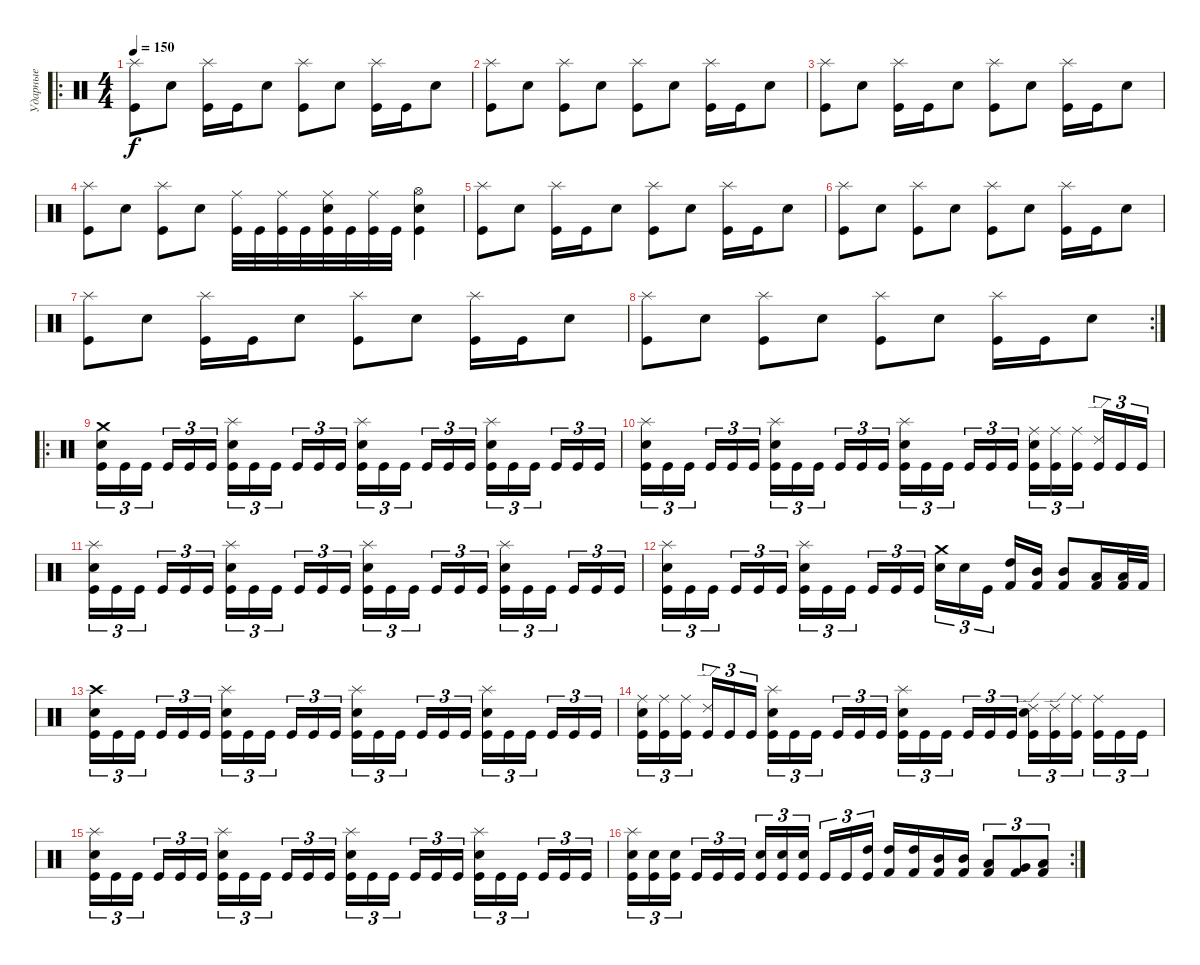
\track ("Ударные" "Ударные") {instrument percussion}
\staff {score}
\articulation defaults
\ro
\ts (4 4)
\tempo 150
\clef neutral
\ks c
("Splash (hit)" "Kick (hit)").8{dy f} "Snare (hit) 2".8 ("Splash (hit)" "Kick (hit)").16 "Kick (hit)".16 "Snare (hit) 2".8 ("Splash (hit)" "Kick (hit)").8 "Snare (hit) 2".8 ("Splash (hit)" "Kick (hit)").16 "Kick (hit)".16 "Snare (hit) 2".8 |
("Splash (hit)" "Kick (hit)").8 "Snare (hit) 2".8 ("Splash (hit)" "Kick (hit)").8 "Snare (hit) 2".8 ("Splash (hit)" "Kick (hit)").8 "Snare (hit) 2".8 ("Splash (hit)" "Kick (hit)").16 "Kick (hit)".16 "Snare (hit) 2".8 |
("Splash (hit)" "Kick (hit)").8 "Snare (hit) 2".8 ("Splash (hit)" "Kick (hit)").16 "Kick (hit)".16 "Snare (hit) 2".8 ("Splash (hit)" "Kick (hit)").8 "Snare (hit) 2".8 ("Splash (hit)" "Kick (hit)").16 "Kick (hit)".16 "Snare (hit) 2".8 |
("Splash (hit)" "Kick (hit)").8 "Snare (hit) 2".8 ("Splash (hit)" "Kick (hit)").8 "Snare (hit) 2".8 ("Ride (middle)" "Kick (hit)").32 "Kick (hit)".32 ("Ride (middle)" "Kick (hit)").32 "Kick (hit)".32 ("Ride (middle)" "Snare (hit) 2" "Kick (hit)").32 "Kick (hit)".32 ("Ride (middle)" "Kick (hit)").32 "Kick (hit)".32 ("Hi-Hat (open)" "Snare (hit) 2" "Kick (hit)").4 |
("Splash (hit)" "Kick (hit)").8 "Snare (hit) 2".8 ("Splash (hit)" "Kick (hit)").16 "Kick (hit)".16 "Snare (hit) 2".8 ("Splash (hit)" "Kick (hit)").8 "Snare (hit) 2".8 ("Splash (hit)" "Kick (hit)").16 "Kick (hit)".16 "Snare (hit) 2".8 |
("Splash (hit)" "Kick (hit)").8 "Snare (hit) 2".8 ("Splash (hit)" "Kick (hit)").8 "Snare (hit) 2".8 ("Splash (hit)" "Kick (hit)").8 "Snare (hit) 2".8 ("Splash (hit)" "Kick (hit)").16 "Kick (hit)".16 "Snare (hit) 2".8 |
("Splash (hit)" "Kick (hit)").8 "Snare (hit) 2".8 ("Splash (hit)" "Kick (hit)").16 "Kick (hit)".16 "Snare (hit) 2".8 ("Splash (hit)" "Kick (hit)").8 "Snare (hit) 2".8 ("Splash (hit)" "Kick (hit)").16 "Kick (hit)".16 "Snare (hit) 2".8 |
\rc 2
("Splash (hit)" "Kick (hit)").8 "Snare (hit) 2".8 ("Splash (hit)" "Kick (hit)").8 "Snare (hit) 2".8 ("Splash (hit)" "Kick (hit)").8 "Snare (hit) 2".8 ("Splash (hit)" "Kick (hit)").16 "Kick (hit)".16 "Snare (hit) 2".8 |
\ro
("Snare (hit) 2" "Crash medium (hit)" "Kick (hit)").16{tu (3 2)} "Kick (hit)".16{tu (3 2)} "Kick (hit)".16{tu (3 2) beam splitsecondary} "Kick (hit)".16{tu (3 2)} "Kick (hit)".16{tu (3 2)} "Kick (hit)".16{tu (3 2)} ("Snare (hit) 2" "Splash (hit)" "Kick (hit)").16{tu (3 2)} "Kick (hit)".16{tu (3 2)} "Kick (hit)".16{tu (3 2) beam splitsecondary} "Kick (hit)".16{tu (3 2)} "Kick (hit)".16{tu (3 2)} "Kick (hit)".16{tu (3 2)} ("Snare (hit) 2" "Splash (hit)" "Kick (hit)").16{tu (3 2)} "Kick (hit)".16{tu (3 2)} "Kick (hit)".16{tu (3 2) beam splitsecondary} "Kick (hit)".16{tu (3 2)} "Kick (hit)".16{tu (3 2)} "Kick (hit)".16{tu (3 2)} ("Snare (hit) 2" "Splash (hit)" "Kick (hit)").16{tu (3 2)} "Kick (hit)".16{tu (3 2)} "Kick (hit)".16{tu (3 2) beam splitsecondary} "Kick (hit)".16{tu (3 2)} "Kick (hit)".16{tu (3 2)} "Kick (hit)".16{tu (3 2)} |
("Snare (hit) 2" "Splash (hit)" "Kick (hit)").16{tu (3 2)} "Kick (hit)".16{tu (3 2)} "Kick (hit)".16{tu (3 2) beam splitsecondary} "Kick (hit)".16{tu (3 2)} "Kick (hit)".16{tu (3 2)} "Kick (hit)".16{tu (3 2)} ("Snare (hit) 2" "Splash (hit)" "Kick (hit)").16{tu (3 2)} "Kick (hit)".16{tu (3 2)} "Kick (hit)".16{tu (3 2) beam splitsecondary} "Kick (hit)".16{tu (3 2)} "Kick (hit)".16{tu (3 2)} "Kick (hit)".16{tu (3 2)} ("Snare (hit) 2" "Splash (hit)" "Kick (hit)").16{tu (3 2)} "Kick (hit)".16{tu (3 2)} "Kick (hit)".16{tu (3 2) beam splitsecondary} "Kick (hit)".16{tu (3 2)} "Kick (hit)".16{tu (3 2)} "Kick (hit)".16{tu (3 2)} ("Snare (hit) 2" "Ride (middle)" "Kick (hit)").16{tu (3 2)} ("Ride (middle)" "Kick (hit)").16{tu (3 2)} ("Ride (middle)" "Kick (hit)").16{tu (3 2) beam splitsecondary} ("Ride (edge) 2" "Kick (hit)").16{tu (3 2)} "Kick (hit)".16{tu (3 2)} "Kick (hit)".16{tu (3 2)} |
("Snare (hit) 2" "Splash (hit)" "Kick (hit)").16{tu (3 2)} "Kick (hit)".16{tu (3 2)} "Kick (hit)".16{tu (3 2) beam splitsecondary} "Kick (hit)".16{tu (3 2)} "Kick (hit)".16{tu (3 2)} "Kick (hit)".16{tu (3 2)} ("Snare (hit) 2" "Splash (hit)" "Kick (hit)").16{tu (3 2)} "Kick (hit)".16{tu (3 2)} "Kick (hit)".16{tu (3 2) beam splitsecondary} "Kick (hit)".16{tu (3 2)} "Kick (hit)".16{tu (3 2)} "Kick (hit)".16{tu (3 2)} ("Snare (hit) 2" "Splash (hit)" "Kick (hit)").16{tu (3 2)} "Kick (hit)".16{tu (3 2)} "Kick (hit)".16{tu (3 2) beam splitsecondary} "Kick (hit)".16{tu (3 2)} "Kick (hit)".16{tu (3 2)} "Kick (hit)".16{tu (3 2)} ("Snare (hit) 2" "Splash (hit)" "Kick (hit)").16{tu (3 2)} "Kick (hit)".16{tu (3 2)} "Kick (hit)".16{tu (3 2) beam splitsecondary} "Kick (hit)".16{tu (3 2)} "Kick (hit)".16{tu (3 2)} "Kick (hit)".16{tu (3 2)} |
("Snare (hit) 2" "Splash (hit)" "Kick (hit)").16{tu (3 2)} "Kick (hit)".16{tu (3 2)} "Kick (hit)".16{tu (3 2) beam splitsecondary} "Kick (hit)".16{tu (3 2)} "Kick (hit)".16{tu (3 2)} "Kick (hit)".16{tu (3 2)} ("Snare (hit) 2" "Splash (hit)" "Kick (hit)").16{tu (3 2)} "Kick (hit)".16{tu (3 2)} "Kick (hit)".16{tu (3 2) beam splitsecondary} "Kick (hit)".16{tu (3 2)} "Kick (hit)".16{tu (3 2)} "Kick (hit)".16{tu (3 2)} ("Snare (hit) 2" "Crash medium (hit)").16{tu (3 2)} "Snare (hit) 2".16{tu (3 2)} "Kick (hit)".16{tu (3 2) beam splitsecondary} ("High Tom (hit)" "Kick (hit) 2").16 ("Mid Tom (hit)" "Kick (hit) 2").16 ("Mid Tom (hit)" "Kick (hit) 2").8 ("Low Tom (hit)" "Kick (hit) 2").16 ("Low Tom (hit)" "Kick (hit) 2").32 "Kick (hit) 2".32 |
("Snare (hit) 2" "Crash high (hit)" "Kick (hit)").16{tu (3 2)} "Kick (hit)".16{tu (3 2)} "Kick (hit)".16{tu (3 2) beam splitsecondary} "Kick (hit)".16{tu (3 2)} "Kick (hit)".16{tu (3 2)} "Kick (hit)".16{tu (3 2)} ("Snare (hit) 2" "Splash (hit)" "Kick (hit)").16{tu (3 2)} "Kick (hit)".16{tu (3 2)} "Kick (hit)".16{tu (3 2) beam splitsecondary} "Kick (hit)".16{tu (3 2)} "Kick (hit)".16{tu (3 2)} "Kick (hit)".16{tu (3 2)} ("Snare (hit) 2" "Splash (hit)" "Kick (hit)").16{tu (3 2)} "Kick (hit)".16{tu (3 2)} "Kick (hit)".16{tu (3 2) beam splitsecondary} "Kick (hit)".16{tu (3 2)} "Kick (hit)".16{tu (3 2)} "Kick (hit)".16{tu (3 2)} ("Snare (hit) 2" "Splash (hit)" "Kick (hit)").16{tu (3 2)} "Kick (hit)".16{tu (3 2)} "Kick (hit)".16{tu (3 2) beam splitsecondary} "Kick (hit)".16{tu (3 2)} "Kick (hit)".16{tu (3 2)} "Kick (hit)".16{tu (3 2)} |
("Snare (hit) 2" "Ride (middle)" "Kick (hit)").16{tu (3 2)} ("Ride (middle)" "Kick (hit)").16{tu (3 2)} ("Ride (middle)" "Kick (hit)").16{tu (3 2) beam splitsecondary} ("Ride (edge) 2" "Kick (hit)").16{tu (3 2)} "Kick (hit)".16{tu (3 2)} "Kick (hit)".16{tu (3 2)} ("Snare (hit) 2" "Splash (hit)" "Kick (hit)").16{tu (3 2)} "Kick (hit)".16{tu (3 2)} "Kick (hit)".16{tu (3 2) beam splitsecondary} "Kick (hit)".16{tu (3 2)} "Kick (hit)".16{tu (3 2)} "Kick (hit)".16{tu (3 2)} ("Snare (hit) 2" "Splash (hit)" "Kick (hit)").16{tu (3 2)} "Kick (hit)".16{tu (3 2)} "Kick (hit)".16{tu (3 2) beam splitsecondary} "Kick (hit)".16{tu (3 2)} "Kick (hit)".16{tu (3 2)} "Kick (hit)".16{tu (3 2)} ("Snare (hit) 2" "Ride (edge) 2" "Kick (hit)").16{tu (3 2)} ("Ride (edge) 2" "Kick (hit)").16{tu (3 2)} ("Ride (middle)" "Kick (hit)").16{tu (3 2) beam splitsecondary} ("Ride (middle)" "Kick (hit)").16{tu (3 2)} "Kick (hit)".16{tu (3 2)} "Kick (hit)".16{tu (3 2)} |
("Snare (hit) 2" "Splash (hit)" "Kick (hit)").16{tu (3 2)} "Kick (hit)".16{tu (3 2)} "Kick (hit)".16{tu (3 2) beam splitsecondary} "Kick (hit)".16{tu (3 2)} "Kick (hit)".16{tu (3 2)} "Kick (hit)".16{tu (3 2)} ("Snare (hit) 2" "Splash (hit)" "Kick (hit)").16{tu (3 2)} "Kick (hit)".16{tu (3 2)} "Kick (hit)".16{tu (3 2) beam splitsecondary} "Kick (hit)".16{tu (3 2)} "Kick (hit)".16{tu (3 2)} "Kick (hit)".16{tu (3 2)} ("Snare (hit) 2" "Splash (hit)" "Kick (hit)").16{tu (3 2)} "Kick (hit)".16{tu (3 2)} "Kick (hit)".16{tu (3 2) beam splitsecondary} "Kick (hit)".16{tu (3 2)} "Kick (hit)".16{tu (3 2)} "Kick (hit)".16{tu (3 2)} ("Snare (hit) 2" "Splash (hit)" "Kick (hit)").16{tu (3 2)} "Kick (hit)".16{tu (3 2)} "Kick (hit)".16{tu (3 2) beam splitsecondary} "Kick (hit)".16{tu (3 2)} "Kick (hit)".16{tu (3 2)} "Kick (hit)".16{tu (3 2)} |
\rc 2
("Snare (hit) 2" "Splash (hit)" "Kick (hit)").16{tu (3 2)} ("Snare (hit) 2" "Kick (hit)").16{tu (3 2)} ("Snare (hit) 2" "Kick (hit)").16{tu (3 2) beam splitsecondary} "Kick (hit)".16{tu (3 2)} "Kick (hit)".16{tu (3 2)} "Kick (hit)".16{tu (3 2)} ("Snare (hit) 2" "Kick (hit)").16{tu (3 2)} ("Snare (hit) 2" "Kick (hit)").16{tu (3 2)} ("Snare (hit) 2" "Kick (hit)").16{tu (3 2) beam splitsecondary} "Kick (hit)".16{tu (3 2)} "Kick (hit)".16{tu (3 2)} ("High Tom (hit)" "Kick (hit)").16{tu (3 2)} ("High Tom (hit)" "Kick (hit) 2").16 ("High Tom (hit)" "Kick (hit) 2").16 ("Mid Tom (hit)" "Kick (hit) 2").16 ("Mid Tom (hit)" "Kick (hit) 2").16 ("Low Tom (hit)" "Kick (hit) 2").8{tu (3 2)} ("Very Low Tom (hit)" "Kick (hit) 2").8{tu (3 2)} ("Low Floor Tom (hit)" "Kick (hit) 2").8{tu (3 2)}
